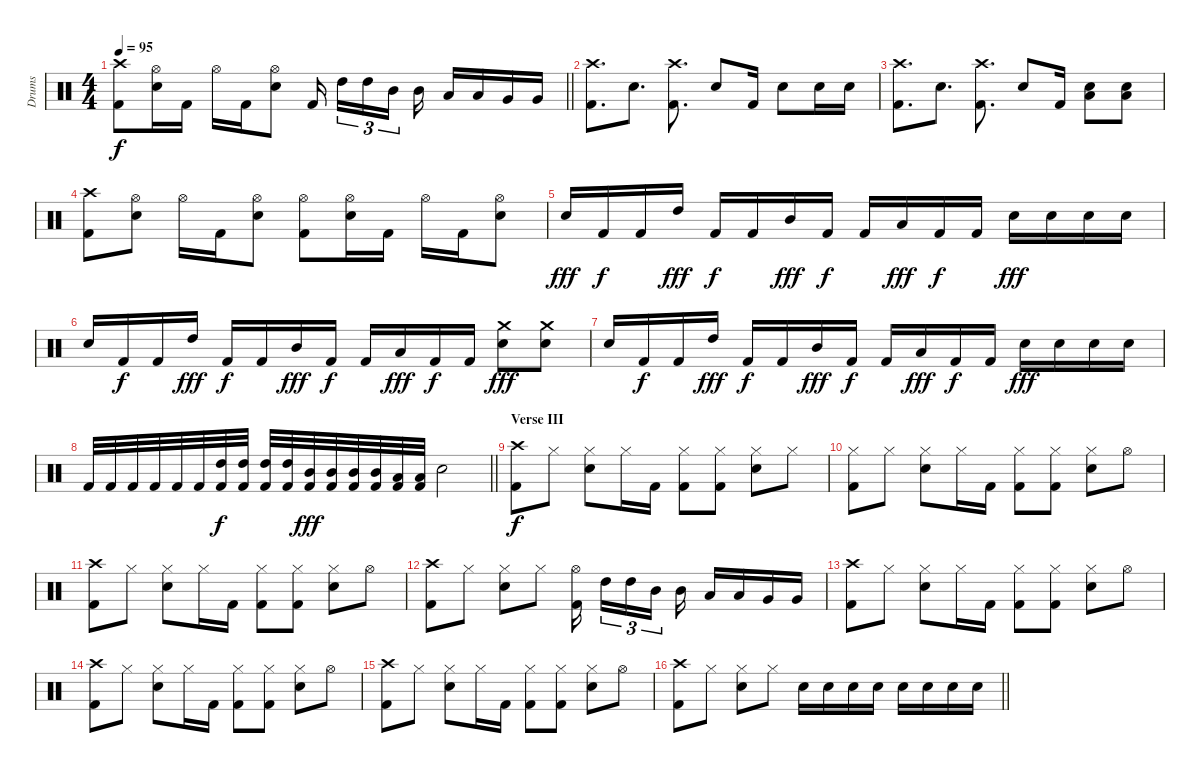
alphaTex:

\track ("Drums" "Drums") {instrument percussion}
\staff {score}
\articulation defaults
\ts (4 4)
\tempo 95
\clef neutral
\barLineRight lightlight
\ks c
("Crash high (hit)" "Kick (hit) 2").8{dy f} ("Hi-Hat (open)" "Snare (hit) 2").16 "Kick (hit) 2".16 "Hi-Hat (open)".16 "Kick (hit) 2".16 ("Hi-Hat (open)" "Snare (hit) 2").8 "Kick (hit) 2".16{beam splitsecondary} "High Tom (hit)".16{tu (3 2)} "High Tom (hit)".16{tu (3 2)} "Mid Tom (hit)".16{tu (3 2) beam splitsecondary} "Mid Tom (hit)".16 "Low Tom (hit)".16 "Low Tom (hit)".16 "Very Low Tom (hit)".16 "Very Low Tom (hit)".16 |
("Kick (hit) 2" "Crash high (hit)").8{d} "Snare (hit) 2".8{d} ("Kick (hit) 2" "Crash high (hit)").8{d} "Snare (hit) 2".8 "Kick (hit) 2".16 "Snare (hit) 2".8 "Snare (hit) 2".16 "Snare (hit) 2".16 |
("Kick (hit) 2" "Crash high (hit)").8{d} "Snare (hit) 2".8{d} ("Kick (hit) 2" "Crash high (hit)").8{d} "Snare (hit) 2".8 "Kick (hit) 2".16 ("Snare (hit) 2" "Low Tom (hit)").8 ("Snare (hit) 2" "Low Tom (hit)").8 |
("Crash high (hit)" "Kick (hit) 2").8 ("Hi-Hat (open)" "Snare (hit) 2").8 "Hi-Hat (open)".16 "Kick (hit) 2".16 ("Hi-Hat (open)" "Snare (hit) 2").8 ("Hi-Hat (open)" "Kick (hit) 2").8 ("Hi-Hat (open)" "Snare (hit) 2").16 "Kick (hit) 2".16 "Hi-Hat (open)".16 "Kick (hit) 2".16 ("Hi-Hat (open)" "Snare (hit) 2").8 |
"Snare (hit) 2".16{dy fff} "Kick (hit) 2".16{dy f} "Kick (hit) 2".16 "High Tom (hit)".16{dy fff} "Kick (hit) 2".16{dy f} "Kick (hit) 2".16 "Mid Tom (hit)".16{dy fff} "Kick (hit) 2".16{dy f} "Kick (hit) 2".16 "Low Tom (hit)".16{dy fff} "Kick (hit) 2".16{dy f} "Kick (hit) 2".16 "Snare (hit) 2".16{dy fff} "Snare (hit) 2".16 "Snare (hit) 2".16 "Snare (hit) 2".16 |
"Snare (hit) 2".16 "Kick (hit) 2".16{dy f} "Kick (hit) 2".16 "High Tom (hit)".16{dy fff} "Kick (hit) 2".16{dy f} "Kick (hit) 2".16 "Mid Tom (hit)".16{dy fff} "Kick (hit) 2".16{dy f} "Kick (hit) 2".16 "Low Tom (hit)".16{dy fff} "Kick (hit) 2".16{dy f} "Kick (hit) 2".16 ("Snare (hit) 2" "Crash medium (hit)").8{dy fff} ("Snare (hit) 2" "Crash medium (hit)").8 |
"Snare (hit) 2".16 "Kick (hit) 2".16{dy f} "Kick (hit) 2".16 "High Tom (hit)".16{dy fff} "Kick (hit) 2".16{dy f} "Kick (hit) 2".16 "Mid Tom (hit)".16{dy fff} "Kick (hit) 2".16{dy f} "Kick (hit) 2".16 "Low Tom (hit)".16{dy fff} "Kick (hit) 2".16{dy f} "Kick (hit) 2".16 "Snare (hit) 2".16{dy fff} "Snare (hit) 2".16 "Snare (hit) 2".16 "Snare (hit) 2".16 |
\barLineRight lightlight "Kick (hit) 2".32 "Kick (hit) 2".32 "Kick (hit) 2".32 "Kick (hit) 2".32 "Kick (hit) 2".32 "Kick (hit) 2".32
("High Tom (hit)" "Kick (hit) 2").32{dy f} ("High Tom (hit)" "Kick (hit) 2").32 ("High Tom (hit)" "Kick (hit) 2").32 ("High Tom (hit)" "Kick (hit) 2").32 ("Mid Tom (hit)" "Kick (hit) 2").32{dy fff} ("Mid Tom (hit)" "Kick (hit) 2").32 ("Mid Tom (hit)" "Kick (hit) 2").32 ("Mid Tom (hit)" "Kick (hit) 2").32 ("Low Tom (hit)" "Kick (hit) 2").32 ("Low Tom (hit)" "Kick (hit) 2").32 "Snare (hit) 2".2 |
\section ("" "Verse III")
("Crash high (hit)" "Kick (hit) 2").8{dy f} "Hi-Hat (closed)".8 ("Hi-Hat (closed)" "Snare (hit) 2").8 "Hi-Hat (closed)".16 "Kick (hit) 2".16 ("Hi-Hat (closed)" "Kick (hit) 2").8 ("Hi-Hat (closed)" "Kick (hit) 2").8 ("Hi-Hat (closed)" "Snare (hit) 2").8 "Hi-Hat (closed)".8 |
("Hi-Hat (closed)" "Kick (hit) 2").8 "Hi-Hat (closed)".8 ("Hi-Hat (closed)" "Snare (hit) 2").8 "Hi-Hat (closed)".16 "Kick (hit) 2".16 ("Hi-Hat (closed)" "Kick (hit) 2").8 ("Hi-Hat (closed)" "Kick (hit) 2").8 ("Hi-Hat (closed)" "Snare (hit) 2").8 "Hi-Hat (open)".8 |
("Crash high (hit)" "Kick (hit) 2").8 "Hi-Hat (closed)".8 ("Hi-Hat (closed)" "Snare (hit) 2").8 "Hi-Hat (closed)".16 "Kick (hit) 2".16 ("Hi-Hat (closed)" "Kick (hit) 2").8 ("Hi-Hat (closed)" "Kick (hit) 2").8 ("Hi-Hat (closed)" "Snare (hit) 2").8 "Hi-Hat (open)".8 |
("Kick (hit) 2" "Crash high (hit)").8 "Hi-Hat (closed)".8 ("Hi-Hat (closed)" "Snare (hit) 2").8 "Hi-Hat (closed)".8 ("Kick (hit) 2" "Hi-Hat (open)").16{beam splitsecondary} "High Tom (hit)".16{tu (3 2)} "High Tom (hit)".16{tu (3 2)} "Mid Tom (hit)".16{tu (3 2) beam splitsecondary} "Mid Tom (hit)".16 "Low Tom (hit)".16 "Low Tom (hit)".16 "Very Low Tom (hit)".16 "Very Low Tom (hit)".16 |
("Crash high (hit)" "Kick (hit) 2").8 "Hi-Hat (closed)".8 ("Hi-Hat (closed)" "Snare (hit) 2").8 "Hi-Hat (closed)".16 "Kick (hit) 2".16 ("Hi-Hat (closed)" "Kick (hit) 2").8 ("Hi-Hat (closed)" "Kick (hit) 2").8 ("Hi-Hat (closed)" "Snare (hit) 2").8 "Hi-Hat (open)".8 |
("Crash high (hit)" "Kick (hit) 2").8 "Hi-Hat (closed)".8 ("Hi-Hat (closed)" "Snare (hit) 2").8 "Hi-Hat (closed)".16 "Kick (hit) 2".16 ("Hi-Hat (closed)" "Kick (hit) 2").8 ("Hi-Hat (closed)" "Kick (hit) 2").8 ("Hi-Hat (closed)" "Snare (hit) 2").8 "Hi-Hat (open)".8 |
("Crash high (hit)" "Kick (hit) 2").8 "Hi-Hat (closed)".8 ("Hi-Hat (closed)" "Snare (hit) 2").8 "Hi-Hat (closed)".16 "Kick (hit) 2".16 ("Hi-Hat (closed)" "Kick (hit) 2").8 ("Hi-Hat (closed)" "Kick (hit) 2").8 ("Hi-Hat (closed)" "Snare (hit) 2").8 "Hi-Hat (open)".8 |
\barLineRight lightlight
("Crash high (hit)" "Kick (hit) 2").8 "Hi-Hat (closed)".8 ("Hi-Hat (closed)" "Snare (hit) 2").8 "Hi-Hat (closed)".8 "Snare (hit) 2".16 "Snare (hit) 2".16 "Snare (hit) 2".16 "Snare (hit) 2".16 "Snare (hit) 2".16 "Snare (hit) 2".16 "Snare (hit) 2".16 "Snare (hit) 2".16
